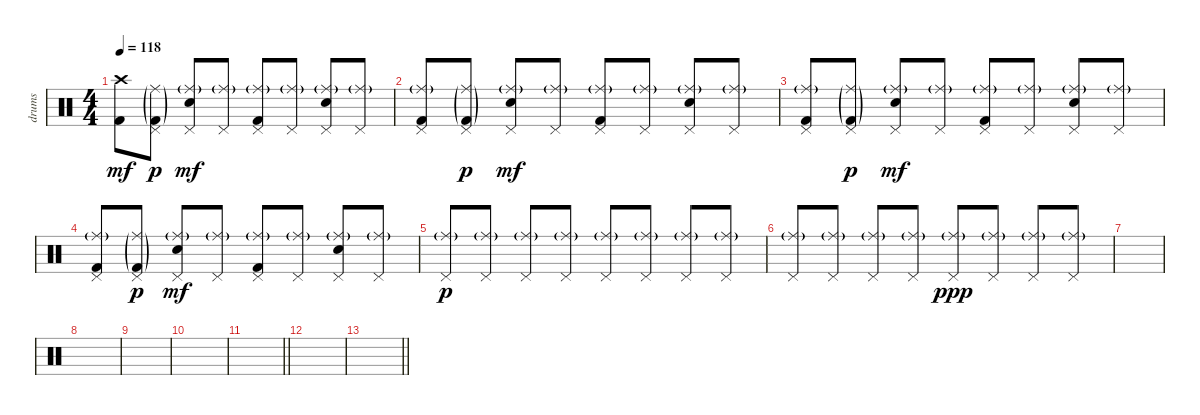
\track ("drums" "drums") {instrument percussion}
\staff {score}
\articulation defaults
\ts (4 4)
\tempo 118
\clef neutral
\ks c
("Crash high (hit)" "Kick (hit) 2").8{dy mf} ("Ride (middle)"{g} "Pedal Hi-Hat (hit)" "Kick (hit) 2"{g}).8{dy p} ("Ride (middle)"{g} "Snare (hit) 2" "Pedal Hi-Hat (hit)").8{dy mf} ("Ride (middle)"{g} "Pedal Hi-Hat (hit)").8 ("Ride (middle)"{g} "Kick (hit) 2" "Pedal Hi-Hat (hit)").8 ("Ride (middle)"{g} "Pedal Hi-Hat (hit)").8 ("Ride (middle)"{g} "Snare (hit) 2" "Pedal Hi-Hat (hit)").8 ("Ride (middle)"{g} "Pedal Hi-Hat (hit)").8 |
("Ride (middle)"{g} "Kick (hit) 2" "Pedal Hi-Hat (hit)").8 ("Ride (middle)"{g} "Pedal Hi-Hat (hit)" "Kick (hit) 2"{g}).8{dy p} ("Ride (middle)"{g} "Snare (hit) 2" "Pedal Hi-Hat (hit)").8{dy mf} ("Ride (middle)"{g} "Pedal Hi-Hat (hit)").8 ("Ride (middle)"{g} "Kick (hit) 2" "Pedal Hi-Hat (hit)").8 ("Ride (middle)"{g} "Pedal Hi-Hat (hit)").8 ("Ride (middle)"{g} "Snare (hit) 2" "Pedal Hi-Hat (hit)").8 ("Ride (middle)"{g} "Pedal Hi-Hat (hit)").8 |
("Ride (middle)"{g} "Kick (hit) 2" "Pedal Hi-Hat (hit)").8 ("Ride (middle)"{g} "Pedal Hi-Hat (hit)" "Kick (hit) 2"{g}).8{dy p} ("Ride (middle)"{g} "Snare (hit) 2" "Pedal Hi-Hat (hit)").8{dy mf} ("Ride (middle)"{g} "Pedal Hi-Hat (hit)").8 ("Ride (middle)"{g} "Kick (hit) 2" "Pedal Hi-Hat (hit)").8 ("Ride (middle)"{g} "Pedal Hi-Hat (hit)").8 ("Ride (middle)"{g} "Snare (hit) 2" "Pedal Hi-Hat (hit)").8 ("Ride (middle)"{g} "Pedal Hi-Hat (hit)").8 |
("Ride (middle)"{g} "Kick (hit) 2" "Pedal Hi-Hat (hit)").8 ("Ride (middle)"{g} "Pedal Hi-Hat (hit)" "Kick (hit) 2"{g}).8{dy p} ("Ride (middle)"{g} "Snare (hit) 2" "Pedal Hi-Hat (hit)").8{dy mf} ("Ride (middle)"{g} "Pedal Hi-Hat (hit)").8 ("Ride (middle)"{g} "Kick (hit) 2" "Pedal Hi-Hat (hit)").8 ("Ride (middle)"{g} "Pedal Hi-Hat (hit)").8 ("Ride (middle)"{g} "Snare (hit) 2" "Pedal Hi-Hat (hit)").8 ("Ride (middle)"{g} "Pedal Hi-Hat (hit)").8 |
("Ride (middle)"{g} "Pedal Hi-Hat (hit)").8{dy p} ("Ride (middle)"{g} "Pedal Hi-Hat (hit)").8 ("Ride (middle)"{g} "Pedal Hi-Hat (hit)").8 ("Ride (middle)"{g} "Pedal Hi-Hat (hit)").8 ("Ride (middle)"{g} "Pedal Hi-Hat (hit)").8 ("Ride (middle)"{g} "Pedal Hi-Hat (hit)").8 ("Ride (middle)"{g} "Pedal Hi-Hat (hit)").8 ("Ride (middle)"{g} "Pedal Hi-Hat (hit)").8 |
("Ride (middle)"{g} "Pedal Hi-Hat (hit)").8 ("Ride (middle)"{g} "Pedal Hi-Hat (hit)").8 ("Ride (middle)"{g} "Pedal Hi-Hat (hit)").8 ("Ride (middle)"{g} "Pedal Hi-Hat (hit)").8 ("Ride (middle)"{g} "Pedal Hi-Hat (hit)").8{dy ppp} ("Ride (middle)"{g} "Pedal Hi-Hat (hit)").8 ("Ride (middle)"{g} "Pedal Hi-Hat (hit)").8 ("Ride (middle)"{g} "Pedal Hi-Hat (hit)").8 |
|
|
|
|
\barLineRight lightlight
|
|
\barLineRight lightlight
